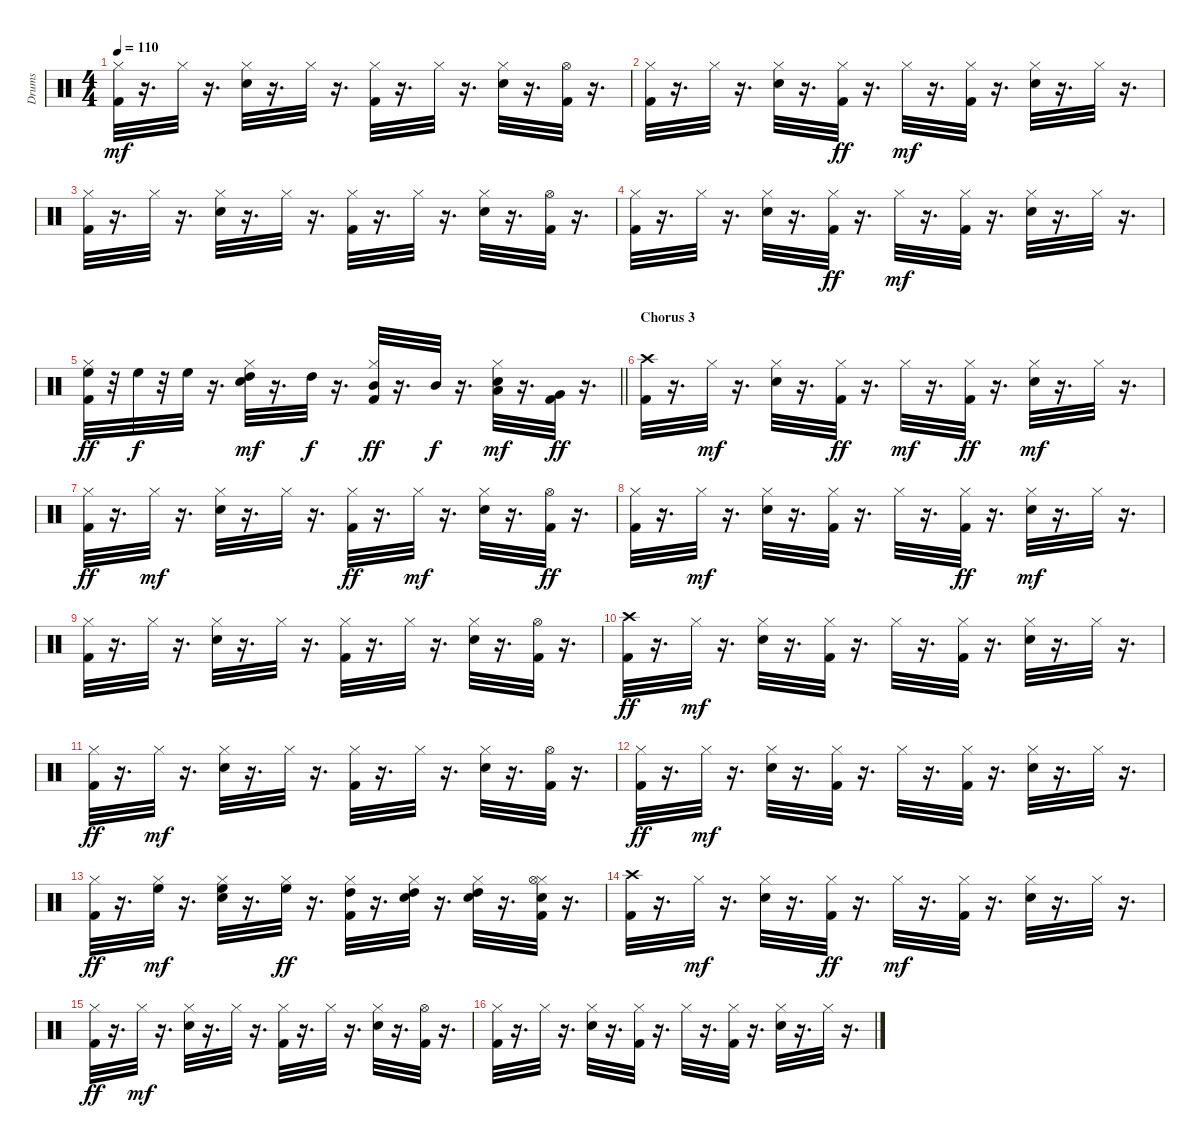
\track ("Drums" "Drums") {instrument percussion}
\staff {score}
\articulation defaults
\ts (4 4)
\tempo 110
\clef neutral
\ks c
("Kick (hit) 2" "Hi-Hat (closed)").32{dy mf} r.16{d} "Hi-Hat (closed)".32 r.16{d} ("Snare (hit) 2" "Hi-Hat (closed)").32 r.16{d} "Hi-Hat (closed)".32 r.16{d} ("Kick (hit) 2" "Hi-Hat (closed)").32 r.16{d} "Hi-Hat (closed)".32 r.16{d} ("Snare (hit) 2" "Hi-Hat (closed)").32 r.16{d} ("Kick (hit) 2" "Hi-Hat (open)").32 r.16{d} |
("Kick (hit) 2" "Hi-Hat (closed)").32 r.16{d} "Hi-Hat (closed)".32 r.16{d} ("Snare (hit) 2" "Hi-Hat (closed)").32 r.16{d} ("Hi-Hat (closed)" "Kick (hit) 2").32{dy ff} r.16{d} "Hi-Hat (closed)".32{dy mf} r.16{d} ("Kick (hit) 2" "Hi-Hat (closed)").32 r.16{d} ("Hi-Hat (closed)" "Snare (hit) 2").32 r.16{d} "Hi-Hat (closed)".32 r.16{d} |
("Kick (hit) 2" "Hi-Hat (closed)").32 r.16{d} "Hi-Hat (closed)".32 r.16{d} ("Hi-Hat (closed)" "Snare (hit) 2").32 r.16{d} "Hi-Hat (closed)".32 r.16{d} ("Kick (hit) 2" "Hi-Hat (closed)").32 r.16{d} "Hi-Hat (closed)".32 r.16{d} ("Snare (hit) 2" "Hi-Hat (closed)").32 r.16{d} ("Kick (hit) 2" "Hi-Hat (open)").32 r.16{d} |
("Kick (hit) 2" "Hi-Hat (closed)").32 r.16{d} "Hi-Hat (closed)".32 r.16{d} ("Snare (hit) 2" "Hi-Hat (closed)").32 r.16{d} ("Hi-Hat (closed)" "Kick (hit) 2").32{dy ff} r.16{d} "Hi-Hat (closed)".32{dy mf} r.16{d} ("Kick (hit) 2" "Hi-Hat (closed)").32 r.16{d} ("Hi-Hat (closed)" "Snare (hit) 2").32 r.16{d} "Hi-Hat (closed)".32 r.16{d} |
\barLineRight lightlight
("Hi-Hat (closed)" "Kick (hit) 2" "High Floor Tom (hit)").32{dy ff} r.32 "High Floor Tom (hit)".32{dy f} r.32 "High Floor Tom (hit)".32 r.16{d} ("Snare (hit) 2" "Hi-Hat (closed)" "High Tom (hit)").32{dy mf} r.16{d} "High Tom (hit)".32{dy f} r.16{d} ("Mid Tom (hit)" "Hi-Hat (closed)" "Kick (hit) 2").32{dy ff} r.16{d} "Mid Tom (hit)".32{dy f} r.16{d} ("Snare (hit) 2" "Hi-Hat (closed)" "Low Tom (hit)").32{dy mf} r.16{d} ("Very Low Tom (hit)" "Kick (hit) 2").32{dy ff} r.16{d} |
\section ("" "Chorus 3")
("Crash high (hit)" "Kick (hit) 2").32 r.16{d} "Hi-Hat (closed)".32{dy mf} r.16{d} ("Snare (hit) 2" "Hi-Hat (closed)").32 r.16{d} ("Hi-Hat (closed)" "Kick (hit) 2").32{dy ff} r.16{d} "Hi-Hat (closed)".32{dy mf} r.16{d} ("Hi-Hat (closed)" "Kick (hit) 2").32{dy ff} r.16{d} ("Snare (hit) 2" "Hi-Hat (closed)").32{dy mf} r.16{d} "Hi-Hat (closed)".32 r.16{d} |
("Hi-Hat (closed)" "Kick (hit) 2").32{dy ff} r.16{d} "Hi-Hat (closed)".32{dy mf} r.16{d} ("Snare (hit) 2" "Hi-Hat (closed)").32 r.16{d} "Hi-Hat (closed)".32 r.16{d} ("Hi-Hat (closed)" "Kick (hit) 2").32{dy ff} r.16{d} "Hi-Hat (closed)".32{dy mf} r.16{d} ("Snare (hit) 2" "Hi-Hat (closed)").32 r.16{d} ("Hi-Hat (open)" "Kick (hit) 2").32{dy ff} r.16{d} |
("Hi-Hat (closed)" "Kick (hit) 2").32 r.16{d} "Hi-Hat (closed)".32{dy mf} r.16{d} ("Hi-Hat (closed)" "Snare (hit) 2").32 r.16{d} ("Kick (hit) 2" "Hi-Hat (closed)").32 r.16{d} "Hi-Hat (closed)".32 r.16{d} ("Hi-Hat (closed)" "Kick (hit) 2").32{dy ff} r.16{d} ("Hi-Hat (closed)" "Snare (hit) 2").32{dy mf} r.16{d} "Hi-Hat (closed)".32 r.16{d} |
("Kick (hit) 2" "Hi-Hat (closed)").32 r.16{d} "Hi-Hat (closed)".32 r.16{d} ("Hi-Hat (closed)" "Snare (hit) 2").32 r.16{d} "Hi-Hat (closed)".32 r.16{d} ("Kick (hit) 2" "Hi-Hat (closed)").32 r.16{d} "Hi-Hat (closed)".32 r.16{d} ("Hi-Hat (closed)" "Snare (hit) 2").32 r.16{d} ("Kick (hit) 2" "Hi-Hat (open)").32 r.16{d} |
("Crash high (hit)" "Kick (hit) 2").32{dy ff} r.16{d} "Hi-Hat (closed)".32{dy mf} r.16{d} ("Hi-Hat (closed)" "Snare (hit) 2").32 r.16{d} ("Kick (hit) 2" "Hi-Hat (closed)").32 r.16{d} "Hi-Hat (closed)".32 r.16{d} ("Kick (hit) 2" "Hi-Hat (closed)").32 r.16{d} ("Hi-Hat (closed)" "Snare (hit) 2").32 r.16{d} "Hi-Hat (closed)".32 r.16{d} |
("Hi-Hat (closed)" "Kick (hit) 2").32{dy ff} r.16{d} "Hi-Hat (closed)".32{dy mf} r.16{d} ("Snare (hit) 2" "Hi-Hat (closed)").32 r.16{d} "Hi-Hat (closed)".32 r.16{d} ("Kick (hit) 2" "Hi-Hat (closed)").32 r.16{d} "Hi-Hat (closed)".32 r.16{d} ("Hi-Hat (closed)" "Snare (hit) 2").32 r.16{d} ("Kick (hit) 2" "Hi-Hat (open)").32 r.16{d} |
("Hi-Hat (closed)" "Kick (hit) 2").32{dy ff} r.16{d} "Hi-Hat (closed)".32{dy mf} r.16{d} ("Snare (hit) 2" "Hi-Hat (closed)").32 r.16{d} ("Kick (hit) 2" "Hi-Hat (closed)").32 r.16{d} "Hi-Hat (closed)".32 r.16{d} ("Kick (hit) 2" "Hi-Hat (closed)").32 r.16{d} ("Snare (hit) 2" "Hi-Hat (closed)").32 r.16{d} "Hi-Hat (closed)".32 r.16{d} |
("Hi-Hat (closed)" "Kick (hit) 2").32{dy ff} r.16{d} ("High Floor Tom (hit)" "Hi-Hat (closed)").32{dy mf} r.16{d} ("High Floor Tom (hit)" "Snare (hit) 2" "Hi-Hat (closed)").32 r.16{d} ("Hi-Hat (closed)" "High Floor Tom (hit)").32{dy ff} r.16{d} ("Hi-Hat (closed)" "High Tom (hit)" "Kick (hit) 2").32 r.16{d} ("Hi-Hat (closed)" "Snare (hit) 2" "High Tom (hit)").32 r.16{d} ("Hi-Hat (closed)" "Snare (hit) 2" "High Tom (hit)").32 r.16{d} ("Hi-Hat (closed)" "Hi-Hat (open)" "Kick (hit) 2" "Snare (hit) 2").32 r.16{d} |
("Crash high (hit)" "Kick (hit) 2").32 r.16{d} "Hi-Hat (closed)".32{dy mf} r.16{d} ("Snare (hit) 2" "Hi-Hat (closed)").32 r.16{d} ("Hi-Hat (closed)" "Kick (hit) 2").32{dy ff} r.16{d} "Hi-Hat (closed)".32{dy mf} r.16{d} ("Kick (hit) 2" "Hi-Hat (closed)").32 r.16{d} ("Snare (hit) 2" "Hi-Hat (closed)").32 r.16{d} "Hi-Hat (closed)".32 r.16{d} |
("Hi-Hat (closed)" "Kick (hit) 2").32{dy ff} r.16{d} "Hi-Hat (closed)".32{dy mf} r.16{d} ("Snare (hit) 2" "Hi-Hat (closed)").32 r.16{d} "Hi-Hat (closed)".32 r.16{d} ("Kick (hit) 2" "Hi-Hat (closed)").32 r.16{d} "Hi-Hat (closed)".32 r.16{d} ("Hi-Hat (closed)" "Snare (hit) 2").32 r.16{d} ("Kick (hit) 2" "Hi-Hat (open)").32 r.16{d} |
("Kick (hit) 2" "Hi-Hat (closed)").32 r.16{d} "Hi-Hat (closed)".32 r.16{d} ("Snare (hit) 2" "Hi-Hat (closed)").32 r.16{d} ("Kick (hit) 2" "Hi-Hat (closed)").32 r.16{d} "Hi-Hat (closed)".32 r.16{d} ("Kick (hit) 2" "Hi-Hat (closed)").32 r.16{d} ("Snare (hit) 2" "Hi-Hat (closed)").32 r.16{d} "Hi-Hat (closed)".32 r.16{d}
